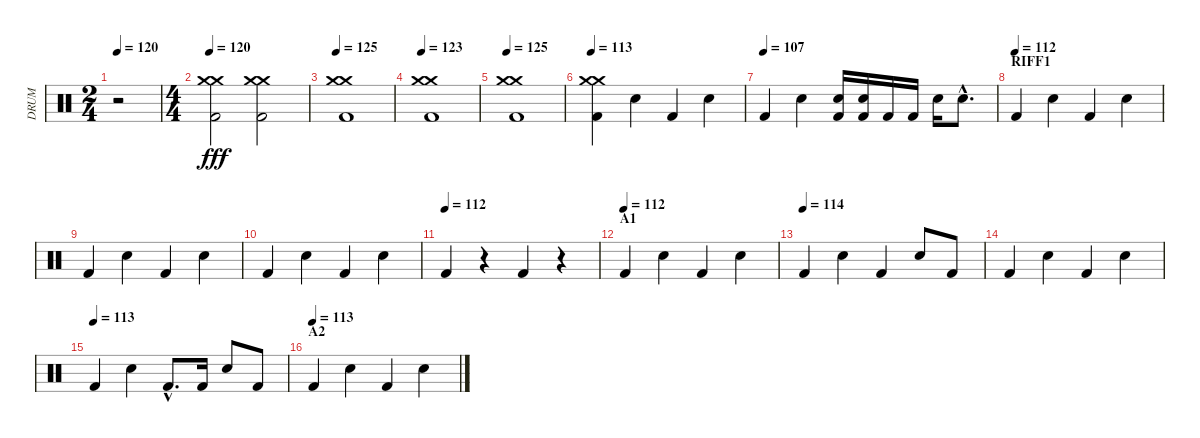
\track ("DRUM" "DRUM") {instrument percussion}
\staff {score}
\articulation defaults
\ts (2 4)
\tempo 120
\tempo 108
\tempo 120
\clef neutral
\ks c
r.2{dy fff} |
\ts (4 4)
\tempo 120
("Kick (hit) 2" "Crash medium (hit)" "Crash medium (hit)").2 ("Kick (hit) 2" "Crash medium (hit)" "Crash medium (hit)").2 |
\tempo 125
("Kick (hit) 2" "Crash medium (hit)" "Crash medium (hit)").1 |
\tempo 123
("Kick (hit) 2" "Crash medium (hit)" "Crash medium (hit)").1 |
\tempo 125
("Kick (hit) 2" "Crash medium (hit)" "Crash medium (hit)").1 |
\tempo 113
("Kick (hit) 2" "Crash medium (hit)" "Crash medium (hit)").4 "Electric Snare (hit)".4 "Kick (hit) 2".4 "Electric Snare (hit)".4 |
\tempo (107)
"Kick (hit) 2".4 "Electric Snare (hit)".4 ("Kick (hit) 2" "Electric Snare (hit)").16 ("Kick (hit) 2" "Electric Snare (hit)").16 "Kick (hit) 2".16 "Kick (hit) 2".16 "Electric Snare (hit)".16 "Electric Snare (hit)"{hac}.8{d} |
\section ("" "RIFF1")
\tempo (112)
"Kick (hit) 2".4 "Electric Snare (hit)".4 "Kick (hit) 2".4 "Electric Snare (hit)".4 |
"Kick (hit) 2".4 "Electric Snare (hit)".4 "Kick (hit) 2".4 "Electric Snare (hit)".4 |
"Kick (hit) 2".4 "Electric Snare (hit)".4 "Kick (hit) 2".4 "Electric Snare (hit)".4 |
\tempo (112)
"Kick (hit) 2".4 r.4 "Kick (hit) 2".4 r.4 |
\section ("" "A1")
\tempo (112)
"Kick (hit) 2".4 "Electric Snare (hit)".4 "Kick (hit) 2".4 "Electric Snare (hit)".4 |
\tempo (114)
"Kick (hit) 2".4 "Electric Snare (hit)".4 "Kick (hit) 2".4 "Electric Snare (hit)".8 "Kick (hit) 2".8 |
"Kick (hit) 2".4 "Electric Snare (hit)".4 "Kick (hit) 2".4 "Electric Snare (hit)".4 |
\tempo (113)
"Kick (hit) 2".4 "Electric Snare (hit)".4 "Kick (hit) 2"{hac}.8{d} "Kick (hit) 2".16 "Electric Snare (hit)".8 "Kick (hit) 2".8 |
\section ("" "A2")
\tempo (113)
"Kick (hit) 2".4 "Electric Snare (hit)".4 "Kick (hit) 2".4 "Electric Snare (hit)".4
